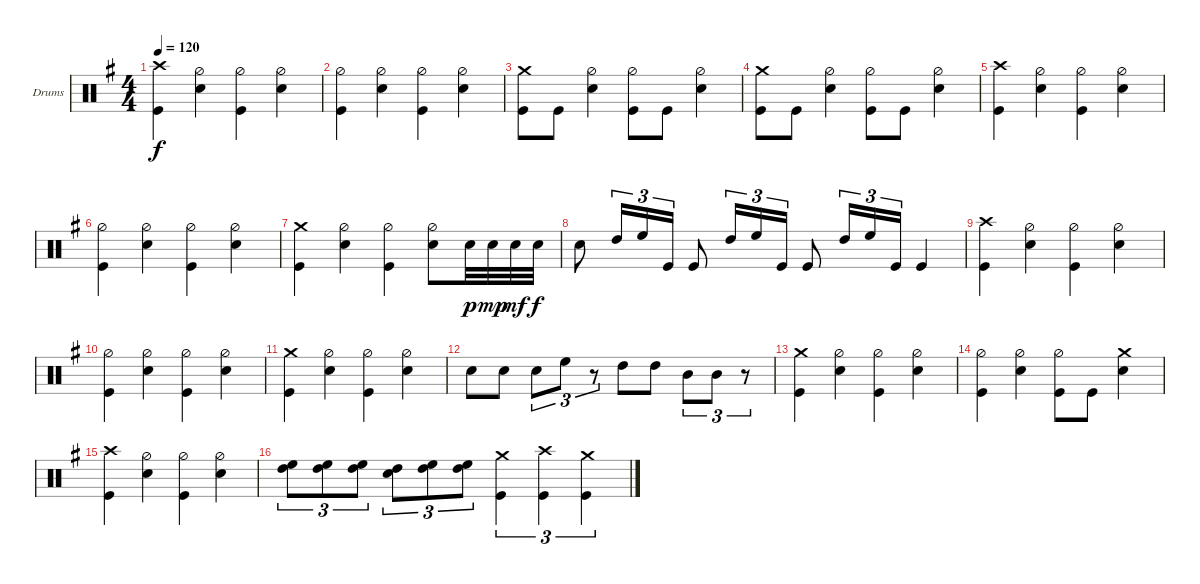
\defaultSystemsLayout 4
\bracketExtendMode groupsimilarinstruments
\firstSystemTrackNameOrientation horizontal
\otherSystemsTrackNameOrientation horizontal
\track ("Drumkit" "Drums") {multiBarRest instrument percussion}
\staff {score}
\articulation defaults
\ts (4 4)
\tempo 120
\clef neutral
\ks g
("Crash high (hit)" "Kick (hit)").4{dy f} ("Hi-Hat (half)" "Snare (hit) 2").4 ("Hi-Hat (half)" "Kick (hit)").4 ("Hi-Hat (half)" "Snare (hit) 2").4 |
("Hi-Hat (half)" "Kick (hit)").4 ("Hi-Hat (half)" "Snare (hit) 2").4 ("Hi-Hat (half)" "Kick (hit)").4 ("Hi-Hat (half)" "Snare (hit) 2").4 |
("Crash medium (hit)" "Kick (hit)").8 "Kick (hit)".8 ("Hi-Hat (half)" "Snare (hit) 2").4 ("Hi-Hat (half)" "Kick (hit)").8 "Kick (hit)".8 ("Hi-Hat (half)" "Snare (hit) 2").4 |
("Crash medium (hit)" "Kick (hit)").8 "Kick (hit)".8 ("Hi-Hat (half)" "Snare (hit) 2").4 ("Hi-Hat (half)" "Kick (hit)").8 "Kick (hit)".8 ("Hi-Hat (half)" "Snare (hit) 2").4 |
("Crash high (hit)" "Kick (hit)").4 ("Hi-Hat (half)" "Snare (hit) 2").4 ("Hi-Hat (half)" "Kick (hit)").4 ("Hi-Hat (half)" "Snare (hit) 2").4 |
("Hi-Hat (half)" "Kick (hit)").4 ("Hi-Hat (half)" "Snare (hit) 2").4 ("Hi-Hat (half)" "Kick (hit)").4 ("Hi-Hat (half)" "Snare (hit) 2").4 |
("Crash medium (hit)" "Kick (hit)").4 ("Hi-Hat (half)" "Snare (hit) 2").4 ("Hi-Hat (half)" "Kick (hit)").4 ("Hi-Hat (half)" "Snare (hit) 2").8 "Snare (hit) 2".32{dy p} "Snare (hit) 2".32{dy mp} "Snare (hit) 2".32{dy mf} "Snare (hit) 2".32{dy f} |
"Snare (hit) 2".8 "High Tom (hit)".16{tu (3 2)} "High Floor Tom (hit)".16{tu (3 2)} "Kick (hit)".16{tu (3 2)} "Kick (hit)".8 "High Tom (hit)".16{tu (3 2)} "High Floor Tom (hit)".16{tu (3 2)} "Kick (hit)".16{tu (3 2)} "Kick (hit)".8 "High Tom (hit)".16{tu (3 2)} "High Floor Tom (hit)".16{tu (3 2)} "Kick (hit)".16{tu (3 2)} "Kick (hit)".4 |
("Crash high (hit)" "Kick (hit)").4 ("Hi-Hat (half)" "Snare (hit) 2").4 ("Hi-Hat (half)" "Kick (hit)").4 ("Hi-Hat (half)" "Snare (hit) 2").4 |
("Hi-Hat (half)" "Kick (hit)").4 ("Hi-Hat (half)" "Snare (hit) 2").4 ("Hi-Hat (half)" "Kick (hit)").4 ("Hi-Hat (half)" "Snare (hit) 2").4 |
("Crash medium (hit)" "Kick (hit)").4 ("Hi-Hat (half)" "Snare (hit) 2").4 ("Hi-Hat (half)" "Kick (hit)").4 ("Hi-Hat (half)" "Snare (hit) 2").4 |
"Snare (hit) 2".8 "Snare (hit) 2".8 "Snare (hit) 2".8{tu (3 2)} "High Floor Tom (hit)".8{tu (3 2)} r.8{tu (3 2)} "High Tom (hit)".8 "High Tom (hit)".8 "Mid Tom (hit)".8{tu (3 2)} "Mid Tom (hit)".8{tu (3 2)} r.8{tu (3 2)} |
("Crash medium (hit)" "Kick (hit)").4 ("Hi-Hat (half)" "Snare (hit) 2").4 ("Hi-Hat (half)" "Kick (hit)").4 ("Hi-Hat (half)" "Snare (hit) 2").4 |
("Hi-Hat (half)" "Kick (hit)").4 ("Hi-Hat (half)" "Snare (hit) 2").4 ("Hi-Hat (half)" "Kick (hit)").8 "Kick (hit)".8 ("Crash medium (hit)" "Snare (hit) 2").4 |
("Crash high (hit)" "Kick (hit)").4 ("Hi-Hat (half)" "Snare (hit) 2").4 ("Hi-Hat (half)" "Kick (hit)").4 ("Hi-Hat (half)" "Snare (hit) 2").4 |
("High Floor Tom (hit)" "High Tom (hit)").8{tu (3 2)} ("High Floor Tom (hit)" "High Tom (hit)").8{tu (3 2)} ("High Floor Tom (hit)" "High Tom (hit)").8{tu (3 2)} ("Snare (hit) 2" "High Tom (hit)").8{tu (3 2)} ("High Floor Tom (hit)" "High Tom (hit)").8{tu (3 2)} ("High Floor Tom (hit)" "High Tom (hit)").8{tu (3 2)} ("Crash medium (hit)" "Kick (hit)").4{tu (3 2)} ("Crash high (hit)" "Kick (hit)").4{tu (3 2)} ("Crash medium (hit)" "Kick (hit)").4{tu (3 2)}
